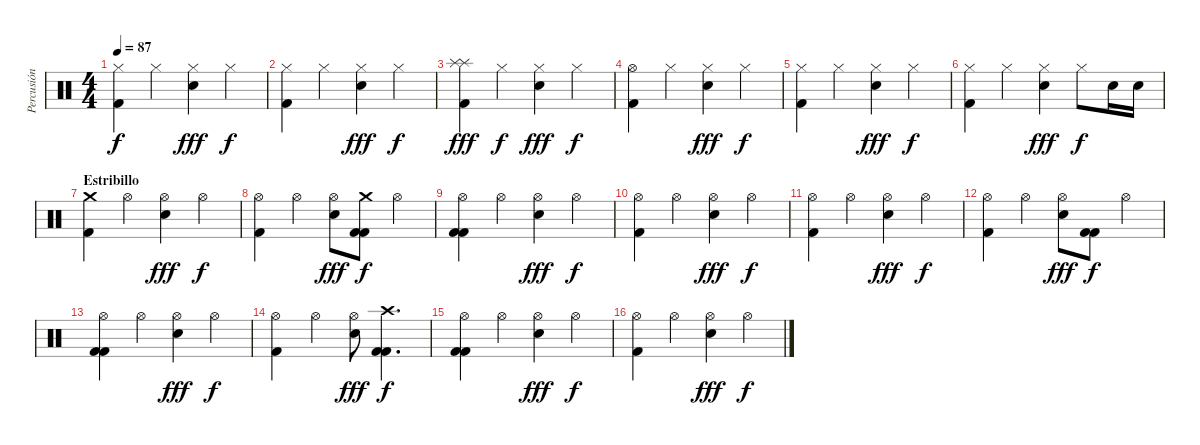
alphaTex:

\track ("Percusión" "Percusión") {instrument percussion}
\staff {score}
\articulation defaults
\ts (4 4)
\tempo 87
\clef neutral
\ks c
("Hi-Hat (closed)" "Kick (hit) 2").4{dy f} "Hi-Hat (closed)".4 ("Hi-Hat (closed)" "Snare (hit) 2").4{dy fff} "Hi-Hat (closed)".4{dy f} |
("Hi-Hat (closed)" "Kick (hit) 2").4 "Hi-Hat (closed)".4 ("Hi-Hat (closed)" "Snare (hit) 2").4{dy fff} "Hi-Hat (closed)".4{dy f} |
("Splash (hit)" "Splash (hit)" "Kick (hit) 2").4{dy fff} "Hi-Hat (closed)".4{dy f} ("Hi-Hat (closed)" "Snare (hit) 2").4{dy fff} "Hi-Hat (closed)".4{dy f} |
("Hi-Hat (open)" "Kick (hit) 2").4 "Hi-Hat (closed)".4 ("Hi-Hat (closed)" "Snare (hit) 2").4{dy fff} "Hi-Hat (closed)".4{dy f} |
("Hi-Hat (closed)" "Kick (hit) 2").4 "Hi-Hat (closed)".4 ("Hi-Hat (closed)" "Snare (hit) 2").4{dy fff} "Hi-Hat (closed)".4{dy f} |
("Hi-Hat (closed)" "Kick (hit) 2").4 "Hi-Hat (closed)".4 ("Hi-Hat (closed)" "Snare (hit) 2").4{dy fff} "Hi-Hat (closed)".8{dy f} "Snare (hit) 2".16 "Snare (hit) 2".16 |
\section ("" "Estribillo")
("Crash medium (hit)" "Kick (hit) 2").4 "Hi-Hat (open)".4 ("Hi-Hat (open)" "Snare (hit) 2").4{dy fff} "Hi-Hat (open)".4{dy f} |
("Hi-Hat (open)" "Kick (hit) 2").4 "Hi-Hat (open)".4 ("Hi-Hat (open)" "Snare (hit) 2").8{dy fff} ("Crash medium (hit)" "Kick (hit) 2" "Kick (hit) 2").8{dy f} "Hi-Hat (open)".4 |
("Hi-Hat (open)" "Kick (hit) 2" "Kick (hit) 2").4 "Hi-Hat (open)".4 ("Hi-Hat (open)" "Snare (hit) 2").4{dy fff} "Hi-Hat (open)".4{dy f} |
("Hi-Hat (open)" "Kick (hit) 2").4 "Hi-Hat (open)".4 ("Hi-Hat (open)" "Snare (hit) 2").4{dy fff} "Hi-Hat (open)".4{dy f} |
("Hi-Hat (open)" "Kick (hit) 2").4 "Hi-Hat (open)".4 ("Hi-Hat (open)" "Snare (hit) 2").4{dy fff} "Hi-Hat (open)".4{dy f} |
("Hi-Hat (open)" "Kick (hit) 2").4 "Hi-Hat (open)".4 ("Hi-Hat (open)" "Snare (hit) 2").8{dy fff} ("Kick (hit) 2" "Kick (hit) 2").8{dy f} "Hi-Hat (open)".4 |
("Hi-Hat (open)" "Kick (hit) 2" "Kick (hit) 2").4 "Hi-Hat (open)".4 ("Hi-Hat (open)" "Snare (hit) 2").4{dy fff} "Hi-Hat (open)".4{dy f} |
("Hi-Hat (open)" "Kick (hit) 2").4 "Hi-Hat (open)".4 ("Hi-Hat (open)" "Snare (hit) 2").8{dy fff} ("Crash high (hit)" "Kick (hit) 2" "Kick (hit) 2").4{d dy f} |
("Hi-Hat (open)" "Kick (hit) 2" "Kick (hit) 2").4 "Hi-Hat (open)".4 ("Hi-Hat (open)" "Snare (hit) 2").4{dy fff} "Hi-Hat (open)".4{dy f} |
("Hi-Hat (open)" "Kick (hit) 2").4 "Hi-Hat (open)".4 ("Hi-Hat (open)" "Snare (hit) 2").4{dy fff} "Hi-Hat (open)".4{dy f}
